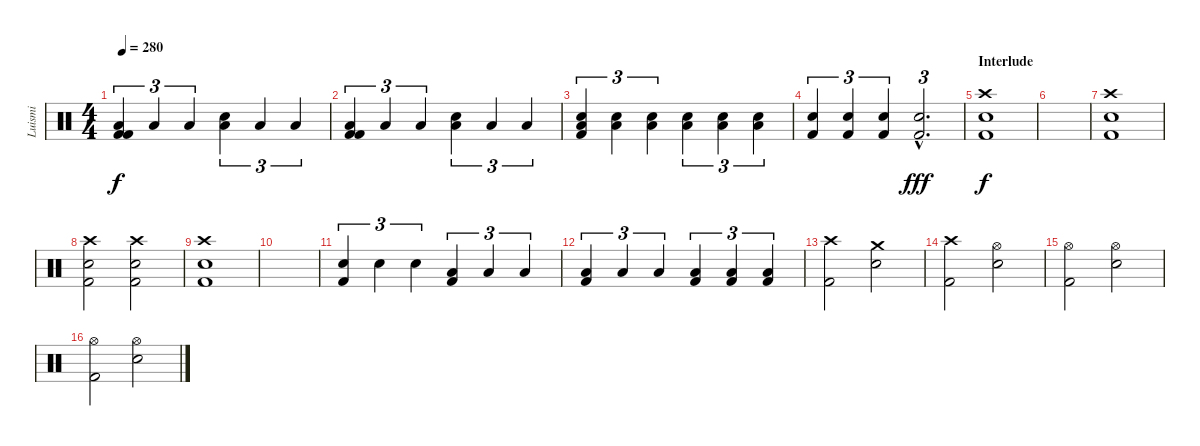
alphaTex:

\track ("Luismi" "Luismi") {instrument percussion}
\staff {score}
\articulation defaults
\ts (4 4)
\tempo 280
\clef neutral
\ks c
("Kick (hit) 2" "Low Floor Tom (hit)" "Kick (hit) 2").4{tu (3 2) dy f} "Low Tom (hit)".4{tu (3 2)} "Low Floor Tom (hit)".4{tu (3 2)} ("Snare (hit) 2" "Low Tom (hit)").4{tu (3 2)} "Low Floor Tom (hit)".4{tu (3 2)} "Low Tom (hit)".4{tu (3 2)} |
("Kick (hit) 2" "Low Floor Tom (hit)" "Kick (hit) 2").4{tu (3 2)} "Low Tom (hit)".4{tu (3 2)} "Low Floor Tom (hit)".4{tu (3 2)} ("Snare (hit) 2" "Low Tom (hit)").4{tu (3 2)} "Low Floor Tom (hit)".4{tu (3 2)} "Low Tom (hit)".4{tu (3 2)} |
("Snare (hit) 2" "Low Floor Tom (hit)" "Kick (hit) 2").4{tu (3 2)} ("Snare (hit) 2" "Low Tom (hit)").4{tu (3 2)} ("Snare (hit) 2" "Low Floor Tom (hit)").4{tu (3 2)} ("Snare (hit) 2" "Low Tom (hit)").4{tu (3 2)} ("Snare (hit) 2" "Low Floor Tom (hit)").4{tu (3 2)} ("Snare (hit) 2" "Low Tom (hit)").4{tu (3 2)} |
("Snare (hit) 2" "Kick (hit) 2").4{tu (3 2)} ("Snare (hit) 2" "Kick (hit) 2").4{tu (3 2)} ("Snare (hit) 2" "Kick (hit) 2").4{tu (3 2)} ("Snare (hit) 2"{hac} "Kick (hit) 2"{hac}).2{d tu (3 2) dy fff} |
\section ("" "Interlude")
("Crash high (hit)" "Snare (hit) 2" "Kick (hit) 2").1{dy f} |
|
("Crash high (hit)" "Snare (hit) 2" "Kick (hit) 2").1 |
("Crash high (hit)" "Snare (hit) 2" "Kick (hit) 2").2 ("Crash high (hit)" "Snare (hit) 2" "Kick (hit) 2").2 |
("Crash high (hit)" "Snare (hit) 2" "Kick (hit) 2").1 |
|
("Snare (hit) 2" "Kick (hit) 2").4{tu (3 2)} "Snare (hit) 2".4{tu (3 2)} "Snare (hit) 2".4{tu (3 2)} ("Low Tom (hit)" "Kick (hit) 2").4{tu (3 2)} "Low Tom (hit)".4{tu (3 2)} "Low Tom (hit)".4{tu (3 2)} |
("Low Floor Tom (hit)" "Kick (hit) 2").4{tu (3 2)} "Low Floor Tom (hit)".4{tu (3 2)} "Low Floor Tom (hit)".4{tu (3 2)} ("Low Floor Tom (hit)" "Kick (hit) 2").4{tu (3 2)} ("Low Floor Tom (hit)" "Kick (hit) 2").4{tu (3 2)} ("Low Floor Tom (hit)" "Kick (hit) 2").4{tu (3 2)} |
("Crash high (hit)" "Kick (hit) 2").2 ("Crash medium (hit)" "Snare (hit) 2").2 |
("Crash high (hit)" "Kick (hit) 2").2 ("Hi-Hat (open)" "Snare (hit) 2").2 |
("Hi-Hat (open)" "Kick (hit) 2").2 ("Hi-Hat (open)" "Snare (hit) 2").2 |
("Hi-Hat (open)" "Kick (hit) 2").2 ("Hi-Hat (open)" "Snare (hit) 2").2
